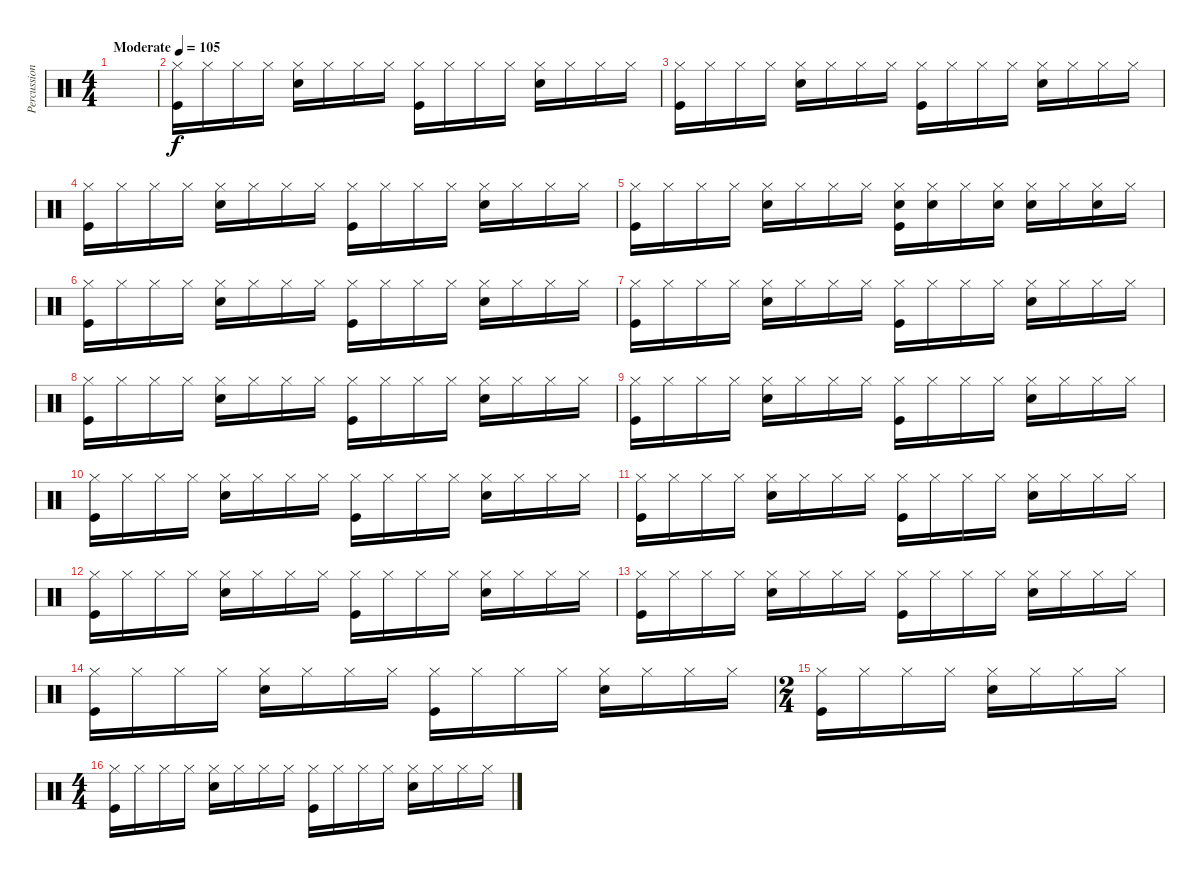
\track ("Percussion" "Percussion") {instrument percussion}
\staff {score}
\articulation defaults
\ts (4 4)
\tempo (105 "Moderate")
\clef neutral
\ks c
|
("Hi-Hat (closed)" "Kick (hit)").16 "Hi-Hat (closed)".16 "Hi-Hat (closed)".16 "Hi-Hat (closed)".16 ("Hi-Hat (closed)" "Snare (hit) 2").16 "Hi-Hat (closed)".16 "Hi-Hat (closed)".16 "Hi-Hat (closed)".16 ("Hi-Hat (closed)" "Kick (hit)").16 "Hi-Hat (closed)".16 "Hi-Hat (closed)".16 "Hi-Hat (closed)".16 ("Hi-Hat (closed)" "Snare (hit) 2").16 "Hi-Hat (closed)".16 "Hi-Hat (closed)".16 "Hi-Hat (closed)".16 |
("Hi-Hat (closed)" "Kick (hit)").16 "Hi-Hat (closed)".16 "Hi-Hat (closed)".16 "Hi-Hat (closed)".16 ("Hi-Hat (closed)" "Snare (hit) 2").16 "Hi-Hat (closed)".16 "Hi-Hat (closed)".16 "Hi-Hat (closed)".16 ("Hi-Hat (closed)" "Kick (hit)").16 "Hi-Hat (closed)".16 "Hi-Hat (closed)".16 "Hi-Hat (closed)".16 ("Hi-Hat (closed)" "Snare (hit) 2").16 "Hi-Hat (closed)".16 "Hi-Hat (closed)".16 "Hi-Hat (closed)".16 |
("Hi-Hat (closed)" "Kick (hit)").16 "Hi-Hat (closed)".16 "Hi-Hat (closed)".16 "Hi-Hat (closed)".16 ("Hi-Hat (closed)" "Snare (hit) 2").16 "Hi-Hat (closed)".16 "Hi-Hat (closed)".16 "Hi-Hat (closed)".16 ("Hi-Hat (closed)" "Kick (hit)").16 "Hi-Hat (closed)".16 "Hi-Hat (closed)".16 "Hi-Hat (closed)".16 ("Hi-Hat (closed)" "Snare (hit) 2").16 "Hi-Hat (closed)".16 "Hi-Hat (closed)".16 "Hi-Hat (closed)".16 |
("Hi-Hat (closed)" "Kick (hit)").16 "Hi-Hat (closed)".16 "Hi-Hat (closed)".16 "Hi-Hat (closed)".16 ("Hi-Hat (closed)" "Snare (hit) 2").16 "Hi-Hat (closed)".16 "Hi-Hat (closed)".16 "Hi-Hat (closed)".16 ("Hi-Hat (closed)" "Kick (hit)" "Snare (hit) 2").16 ("Hi-Hat (closed)" "Snare (hit) 2").16 "Hi-Hat (closed)".16 ("Hi-Hat (closed)" "Snare (hit) 2").16 ("Hi-Hat (closed)" "Snare (hit) 2").16 "Hi-Hat (closed)".16 ("Hi-Hat (closed)" "Snare (hit) 2").16 "Hi-Hat (closed)".16 |
("Hi-Hat (closed)" "Kick (hit)").16 "Hi-Hat (closed)".16 "Hi-Hat (closed)".16 "Hi-Hat (closed)".16 ("Hi-Hat (closed)" "Snare (hit) 2").16 "Hi-Hat (closed)".16 "Hi-Hat (closed)".16 "Hi-Hat (closed)".16 ("Hi-Hat (closed)" "Kick (hit)").16 "Hi-Hat (closed)".16 "Hi-Hat (closed)".16 "Hi-Hat (closed)".16 ("Hi-Hat (closed)" "Snare (hit) 2").16 "Hi-Hat (closed)".16 "Hi-Hat (closed)".16 "Hi-Hat (closed)".16 |
("Hi-Hat (closed)" "Kick (hit)").16 "Hi-Hat (closed)".16 "Hi-Hat (closed)".16 "Hi-Hat (closed)".16 ("Hi-Hat (closed)" "Snare (hit) 2").16 "Hi-Hat (closed)".16 "Hi-Hat (closed)".16 "Hi-Hat (closed)".16 ("Hi-Hat (closed)" "Kick (hit)").16 "Hi-Hat (closed)".16 "Hi-Hat (closed)".16 "Hi-Hat (closed)".16 ("Hi-Hat (closed)" "Snare (hit) 2").16 "Hi-Hat (closed)".16 "Hi-Hat (closed)".16 "Hi-Hat (closed)".16 |
("Hi-Hat (closed)" "Kick (hit)").16 "Hi-Hat (closed)".16 "Hi-Hat (closed)".16 "Hi-Hat (closed)".16 ("Hi-Hat (closed)" "Snare (hit) 2").16 "Hi-Hat (closed)".16 "Hi-Hat (closed)".16 "Hi-Hat (closed)".16 ("Hi-Hat (closed)" "Kick (hit)").16 "Hi-Hat (closed)".16 "Hi-Hat (closed)".16 "Hi-Hat (closed)".16 ("Hi-Hat (closed)" "Snare (hit) 2").16 "Hi-Hat (closed)".16 "Hi-Hat (closed)".16 "Hi-Hat (closed)".16 |
("Hi-Hat (closed)" "Kick (hit)").16 "Hi-Hat (closed)".16 "Hi-Hat (closed)".16 "Hi-Hat (closed)".16 ("Hi-Hat (closed)" "Snare (hit) 2").16 "Hi-Hat (closed)".16 "Hi-Hat (closed)".16 "Hi-Hat (closed)".16 ("Hi-Hat (closed)" "Kick (hit)").16 "Hi-Hat (closed)".16 "Hi-Hat (closed)".16 "Hi-Hat (closed)".16 ("Hi-Hat (closed)" "Snare (hit) 2").16 "Hi-Hat (closed)".16 "Hi-Hat (closed)".16 "Hi-Hat (closed)".16 |
("Hi-Hat (closed)" "Kick (hit)").16 "Hi-Hat (closed)".16 "Hi-Hat (closed)".16 "Hi-Hat (closed)".16 ("Hi-Hat (closed)" "Snare (hit) 2").16 "Hi-Hat (closed)".16 "Hi-Hat (closed)".16 "Hi-Hat (closed)".16 ("Hi-Hat (closed)" "Kick (hit)").16 "Hi-Hat (closed)".16 "Hi-Hat (closed)".16 "Hi-Hat (closed)".16 ("Hi-Hat (closed)" "Snare (hit) 2").16 "Hi-Hat (closed)".16 "Hi-Hat (closed)".16 "Hi-Hat (closed)".16 |
("Hi-Hat (closed)" "Kick (hit)").16 "Hi-Hat (closed)".16 "Hi-Hat (closed)".16 "Hi-Hat (closed)".16 ("Hi-Hat (closed)" "Snare (hit) 2").16 "Hi-Hat (closed)".16 "Hi-Hat (closed)".16 "Hi-Hat (closed)".16 ("Hi-Hat (closed)" "Kick (hit)").16 "Hi-Hat (closed)".16 "Hi-Hat (closed)".16 "Hi-Hat (closed)".16 ("Hi-Hat (closed)" "Snare (hit) 2").16 "Hi-Hat (closed)".16 "Hi-Hat (closed)".16 "Hi-Hat (closed)".16 |
("Hi-Hat (closed)" "Kick (hit)").16 "Hi-Hat (closed)".16 "Hi-Hat (closed)".16 "Hi-Hat (closed)".16 ("Hi-Hat (closed)" "Snare (hit) 2").16 "Hi-Hat (closed)".16 "Hi-Hat (closed)".16 "Hi-Hat (closed)".16 ("Hi-Hat (closed)" "Kick (hit)").16 "Hi-Hat (closed)".16 "Hi-Hat (closed)".16 "Hi-Hat (closed)".16 ("Hi-Hat (closed)" "Snare (hit) 2").16 "Hi-Hat (closed)".16 "Hi-Hat (closed)".16 "Hi-Hat (closed)".16 |
("Hi-Hat (closed)" "Kick (hit)").16 "Hi-Hat (closed)".16 "Hi-Hat (closed)".16 "Hi-Hat (closed)".16 ("Hi-Hat (closed)" "Snare (hit) 2").16 "Hi-Hat (closed)".16 "Hi-Hat (closed)".16 "Hi-Hat (closed)".16 ("Hi-Hat (closed)" "Kick (hit)").16 "Hi-Hat (closed)".16 "Hi-Hat (closed)".16 "Hi-Hat (closed)".16 ("Hi-Hat (closed)" "Snare (hit) 2").16 "Hi-Hat (closed)".16 "Hi-Hat (closed)".16 "Hi-Hat (closed)".16 |
("Hi-Hat (closed)" "Kick (hit)").16 "Hi-Hat (closed)".16 "Hi-Hat (closed)".16 "Hi-Hat (closed)".16 ("Hi-Hat (closed)" "Snare (hit) 2").16 "Hi-Hat (closed)".16 "Hi-Hat (closed)".16 "Hi-Hat (closed)".16 ("Hi-Hat (closed)" "Kick (hit)").16 "Hi-Hat (closed)".16 "Hi-Hat (closed)".16 "Hi-Hat (closed)".16 ("Hi-Hat (closed)" "Snare (hit) 2").16 "Hi-Hat (closed)".16 "Hi-Hat (closed)".16 "Hi-Hat (closed)".16 |
\ts (2 4)
("Hi-Hat (closed)" "Kick (hit)").16 "Hi-Hat (closed)".16 "Hi-Hat (closed)".16 "Hi-Hat (closed)".16 ("Hi-Hat (closed)" "Snare (hit) 2").16 "Hi-Hat (closed)".16 "Hi-Hat (closed)".16 "Hi-Hat (closed)".16 |
\ts (4 4)
("Hi-Hat (closed)" "Kick (hit)").16 "Hi-Hat (closed)".16 "Hi-Hat (closed)".16 "Hi-Hat (closed)".16 ("Hi-Hat (closed)" "Snare (hit) 2").16 "Hi-Hat (closed)".16 "Hi-Hat (closed)".16 "Hi-Hat (closed)".16 ("Hi-Hat (closed)" "Kick (hit)").16 "Hi-Hat (closed)".16 "Hi-Hat (closed)".16 "Hi-Hat (closed)".16 ("Hi-Hat (closed)" "Snare (hit) 2").16 "Hi-Hat (closed)".16 "Hi-Hat (closed)".16 "Hi-Hat (closed)".16
